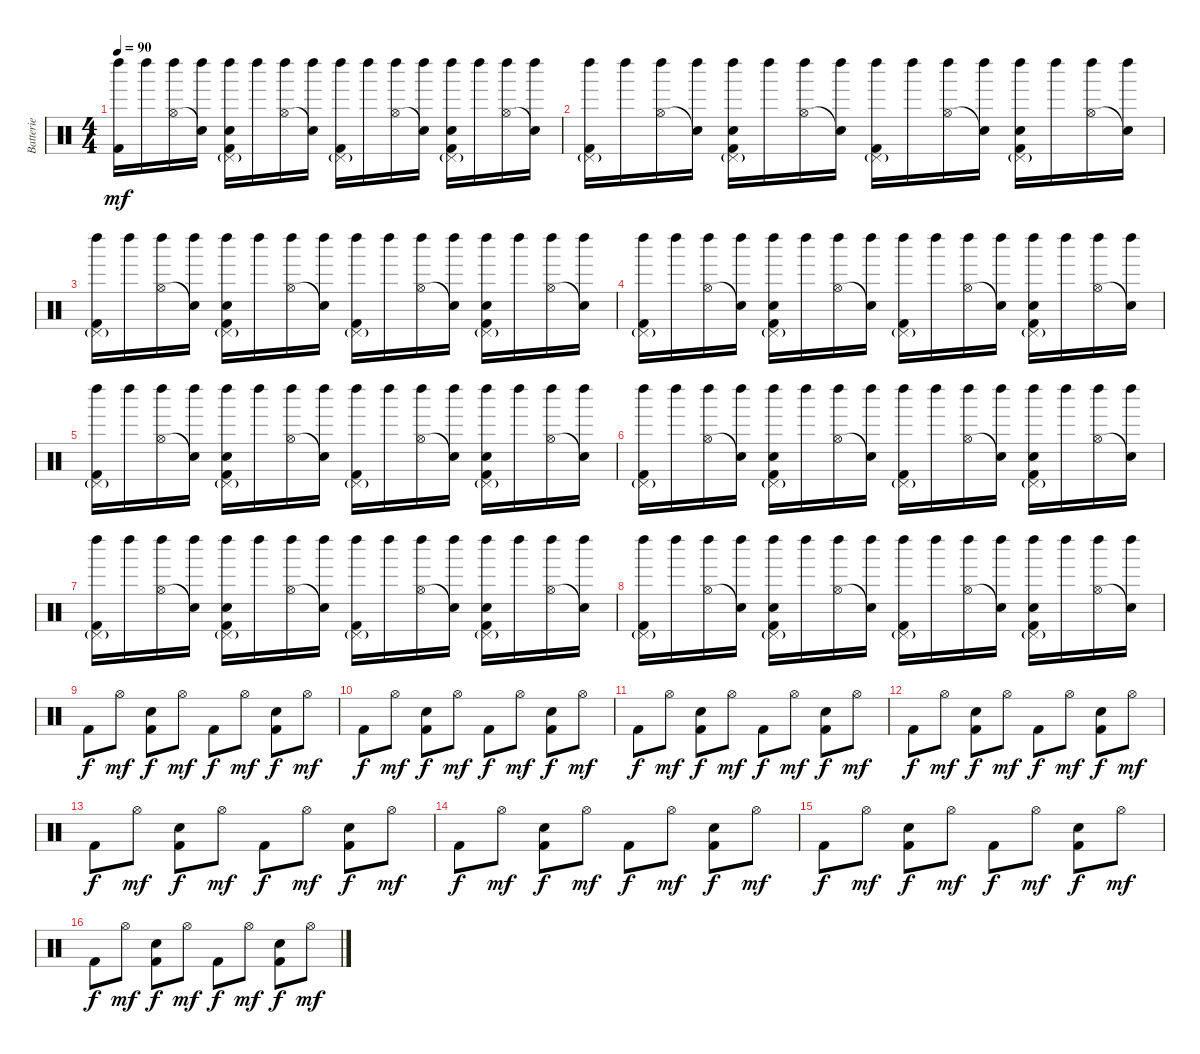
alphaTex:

\track ("Batterie" "Batterie") {instrument percussion}
\staff {score}
\articulation defaults
\ts (4 4)
\tempo 90
\clef neutral
\ks c
("Left Maraca (hit)" "Kick (hit) 2").16{dy mf} "Left Maraca (hit)".16 ("Hi-Hat (open)" "Left Maraca (hit)").16 ("Snare (hit)"{t} "Left Maraca (hit)").16 ("Pedal Hi-Hat (hit)"{g} "Left Maraca (hit)" "Snare (hit) 2" "Kick (hit) 2").16 "Left Maraca (hit)".16 ("Hi-Hat (open)" "Left Maraca (hit)").16 ("Snare (hit)"{t} "Left Maraca (hit)").16 ("Pedal Hi-Hat (hit)"{g} "Left Maraca (hit)" "Kick (hit) 2").16 "Left Maraca (hit)".16 ("Hi-Hat (open)" "Left Maraca (hit)").16 ("Snare (hit)"{t} "Left Maraca (hit)").16 ("Pedal Hi-Hat (hit)"{g} "Left Maraca (hit)" "Snare (hit) 2" "Kick (hit) 2").16 "Left Maraca (hit)".16 ("Hi-Hat (open)" "Left Maraca (hit)").16 ("Snare (hit)"{t} "Left Maraca (hit)").16 |
("Pedal Hi-Hat (hit)"{g} "Left Maraca (hit)" "Kick (hit) 2").16 "Left Maraca (hit)".16 ("Hi-Hat (open)" "Left Maraca (hit)").16 ("Snare (hit)"{t} "Left Maraca (hit)").16 ("Pedal Hi-Hat (hit)"{g} "Left Maraca (hit)" "Snare (hit) 2" "Kick (hit) 2").16 "Left Maraca (hit)".16 ("Hi-Hat (open)" "Left Maraca (hit)").16 ("Snare (hit)"{t} "Left Maraca (hit)").16 ("Pedal Hi-Hat (hit)"{g} "Left Maraca (hit)" "Kick (hit) 2").16 "Left Maraca (hit)".16 ("Hi-Hat (open)" "Left Maraca (hit)").16 ("Snare (hit)"{t} "Left Maraca (hit)").16 ("Pedal Hi-Hat (hit)"{g} "Left Maraca (hit)" "Snare (hit) 2" "Kick (hit) 2").16 "Left Maraca (hit)".16 ("Hi-Hat (open)" "Left Maraca (hit)").16 ("Snare (hit)"{t} "Left Maraca (hit)").16 |
("Pedal Hi-Hat (hit)"{g} "Left Maraca (hit)" "Kick (hit) 2").16 "Left Maraca (hit)".16 ("Hi-Hat (open)" "Left Maraca (hit)").16 ("Snare (hit)"{t} "Left Maraca (hit)").16 ("Pedal Hi-Hat (hit)"{g} "Left Maraca (hit)" "Snare (hit) 2" "Kick (hit) 2").16 "Left Maraca (hit)".16 ("Hi-Hat (open)" "Left Maraca (hit)").16 ("Snare (hit)"{t} "Left Maraca (hit)").16 ("Pedal Hi-Hat (hit)"{g} "Left Maraca (hit)" "Kick (hit) 2").16 "Left Maraca (hit)".16 ("Hi-Hat (open)" "Left Maraca (hit)").16 ("Snare (hit)"{t} "Left Maraca (hit)").16 ("Pedal Hi-Hat (hit)"{g} "Left Maraca (hit)" "Snare (hit) 2" "Kick (hit) 2").16 "Left Maraca (hit)".16 ("Hi-Hat (open)" "Left Maraca (hit)").16 ("Snare (hit)"{t} "Left Maraca (hit)").16 |
("Pedal Hi-Hat (hit)"{g} "Left Maraca (hit)" "Kick (hit) 2").16 "Left Maraca (hit)".16 ("Hi-Hat (open)" "Left Maraca (hit)").16 ("Snare (hit)"{t} "Left Maraca (hit)").16 ("Pedal Hi-Hat (hit)"{g} "Left Maraca (hit)" "Snare (hit) 2" "Kick (hit) 2").16 "Left Maraca (hit)".16 ("Hi-Hat (open)" "Left Maraca (hit)").16 ("Snare (hit)"{t} "Left Maraca (hit)").16 ("Pedal Hi-Hat (hit)"{g} "Left Maraca (hit)" "Kick (hit) 2").16 "Left Maraca (hit)".16 ("Hi-Hat (open)" "Left Maraca (hit)").16 ("Snare (hit)"{t} "Left Maraca (hit)").16 ("Pedal Hi-Hat (hit)"{g} "Left Maraca (hit)" "Snare (hit) 2" "Kick (hit) 2").16 "Left Maraca (hit)".16 ("Hi-Hat (open)" "Left Maraca (hit)").16 ("Snare (hit)"{t} "Left Maraca (hit)").16 |
("Pedal Hi-Hat (hit)"{g} "Left Maraca (hit)" "Kick (hit) 2").16 "Left Maraca (hit)".16 ("Hi-Hat (open)" "Left Maraca (hit)").16 ("Snare (hit)"{t} "Left Maraca (hit)").16 ("Pedal Hi-Hat (hit)"{g} "Left Maraca (hit)" "Snare (hit) 2" "Kick (hit) 2").16 "Left Maraca (hit)".16 ("Hi-Hat (open)" "Left Maraca (hit)").16 ("Snare (hit)"{t} "Left Maraca (hit)").16 ("Pedal Hi-Hat (hit)"{g} "Left Maraca (hit)" "Kick (hit) 2").16 "Left Maraca (hit)".16 ("Hi-Hat (open)" "Left Maraca (hit)").16 ("Snare (hit)"{t} "Left Maraca (hit)").16 ("Pedal Hi-Hat (hit)"{g} "Left Maraca (hit)" "Snare (hit) 2" "Kick (hit) 2").16 "Left Maraca (hit)".16 ("Hi-Hat (open)" "Left Maraca (hit)").16 ("Snare (hit)"{t} "Left Maraca (hit)").16 |
("Pedal Hi-Hat (hit)"{g} "Left Maraca (hit)" "Kick (hit) 2").16 "Left Maraca (hit)".16 ("Hi-Hat (open)" "Left Maraca (hit)").16 ("Snare (hit)"{t} "Left Maraca (hit)").16 ("Pedal Hi-Hat (hit)"{g} "Left Maraca (hit)" "Snare (hit) 2" "Kick (hit) 2").16 "Left Maraca (hit)".16 ("Hi-Hat (open)" "Left Maraca (hit)").16 ("Snare (hit)"{t} "Left Maraca (hit)").16 ("Pedal Hi-Hat (hit)"{g} "Left Maraca (hit)" "Kick (hit) 2").16 "Left Maraca (hit)".16 ("Hi-Hat (open)" "Left Maraca (hit)").16 ("Snare (hit)"{t} "Left Maraca (hit)").16 ("Pedal Hi-Hat (hit)"{g} "Left Maraca (hit)" "Snare (hit) 2" "Kick (hit) 2").16 "Left Maraca (hit)".16 ("Hi-Hat (open)" "Left Maraca (hit)").16 ("Snare (hit)"{t} "Left Maraca (hit)").16 |
("Pedal Hi-Hat (hit)"{g} "Left Maraca (hit)" "Kick (hit) 2").16 "Left Maraca (hit)".16 ("Hi-Hat (open)" "Left Maraca (hit)").16 ("Snare (hit)"{t} "Left Maraca (hit)").16 ("Pedal Hi-Hat (hit)"{g} "Left Maraca (hit)" "Snare (hit) 2" "Kick (hit) 2").16 "Left Maraca (hit)".16 ("Hi-Hat (open)" "Left Maraca (hit)").16 ("Snare (hit)"{t} "Left Maraca (hit)").16 ("Pedal Hi-Hat (hit)"{g} "Left Maraca (hit)" "Kick (hit) 2").16 "Left Maraca (hit)".16 ("Hi-Hat (open)" "Left Maraca (hit)").16 ("Snare (hit)"{t} "Left Maraca (hit)").16 ("Pedal Hi-Hat (hit)"{g} "Left Maraca (hit)" "Snare (hit) 2" "Kick (hit) 2").16 "Left Maraca (hit)".16 ("Hi-Hat (open)" "Left Maraca (hit)").16 ("Snare (hit)"{t} "Left Maraca (hit)").16 |
("Pedal Hi-Hat (hit)"{g} "Left Maraca (hit)" "Kick (hit) 2").16 "Left Maraca (hit)".16 ("Hi-Hat (open)" "Left Maraca (hit)").16 ("Snare (hit)"{t} "Left Maraca (hit)").16 ("Pedal Hi-Hat (hit)"{g} "Left Maraca (hit)" "Snare (hit) 2" "Kick (hit) 2").16 "Left Maraca (hit)".16 ("Hi-Hat (open)" "Left Maraca (hit)").16 ("Snare (hit)"{t} "Left Maraca (hit)").16 ("Pedal Hi-Hat (hit)"{g} "Left Maraca (hit)" "Kick (hit) 2").16 "Left Maraca (hit)".16 ("Hi-Hat (open)" "Left Maraca (hit)").16 ("Snare (hit)"{t} "Left Maraca (hit)").16 ("Pedal Hi-Hat (hit)"{g} "Left Maraca (hit)" "Snare (hit) 2" "Kick (hit) 2").16 "Left Maraca (hit)".16 ("Hi-Hat (open)" "Left Maraca (hit)").16 ("Snare (hit)"{t} "Left Maraca (hit)").16 |
"Kick (hit) 2".8{dy f} "Hi-Hat (open)".8{dy mf} ("Snare (hit) 2" "Kick (hit) 2").8{dy f} "Hi-Hat (open)".8{dy mf} "Kick (hit) 2".8{dy f} "Hi-Hat (open)".8{dy mf} ("Snare (hit) 2" "Kick (hit) 2").8{dy f} "Hi-Hat (open)".8{dy mf} |
"Kick (hit) 2".8{dy f} "Hi-Hat (open)".8{dy mf} ("Snare (hit) 2" "Kick (hit) 2").8{dy f} "Hi-Hat (open)".8{dy mf} "Kick (hit) 2".8{dy f} "Hi-Hat (open)".8{dy mf} ("Snare (hit) 2" "Kick (hit) 2").8{dy f} "Hi-Hat (open)".8{dy mf} |
"Kick (hit) 2".8{dy f} "Hi-Hat (open)".8{dy mf} ("Snare (hit) 2" "Kick (hit) 2").8{dy f} "Hi-Hat (open)".8{dy mf} "Kick (hit) 2".8{dy f} "Hi-Hat (open)".8{dy mf} ("Snare (hit) 2" "Kick (hit) 2").8{dy f} "Hi-Hat (open)".8{dy mf} |
"Kick (hit) 2".8{dy f} "Hi-Hat (open)".8{dy mf} ("Snare (hit) 2" "Kick (hit) 2").8{dy f} "Hi-Hat (open)".8{dy mf} "Kick (hit) 2".8{dy f} "Hi-Hat (open)".8{dy mf} ("Snare (hit) 2" "Kick (hit) 2").8{dy f} "Hi-Hat (open)".8{dy mf} |
"Kick (hit) 2".8{dy f} "Hi-Hat (open)".8{dy mf} ("Snare (hit) 2" "Kick (hit) 2").8{dy f} "Hi-Hat (open)".8{dy mf} "Kick (hit) 2".8{dy f} "Hi-Hat (open)".8{dy mf} ("Snare (hit) 2" "Kick (hit) 2").8{dy f} "Hi-Hat (open)".8{dy mf} |
"Kick (hit) 2".8{dy f} "Hi-Hat (open)".8{dy mf} ("Snare (hit) 2" "Kick (hit) 2").8{dy f} "Hi-Hat (open)".8{dy mf} "Kick (hit) 2".8{dy f} "Hi-Hat (open)".8{dy mf} ("Snare (hit) 2" "Kick (hit) 2").8{dy f} "Hi-Hat (open)".8{dy mf} |
"Kick (hit) 2".8{dy f} "Hi-Hat (open)".8{dy mf} ("Snare (hit) 2" "Kick (hit) 2").8{dy f} "Hi-Hat (open)".8{dy mf} "Kick (hit) 2".8{dy f} "Hi-Hat (open)".8{dy mf} ("Snare (hit) 2" "Kick (hit) 2").8{dy f} "Hi-Hat (open)".8{dy mf} |
"Kick (hit) 2".8{dy f} "Hi-Hat (open)".8{dy mf} ("Snare (hit) 2" "Kick (hit) 2").8{dy f} "Hi-Hat (open)".8{dy mf} "Kick (hit) 2".8{dy f} "Hi-Hat (open)".8{dy mf} ("Snare (hit) 2" "Kick (hit) 2").8{dy f} "Hi-Hat (open)".8{dy mf}
